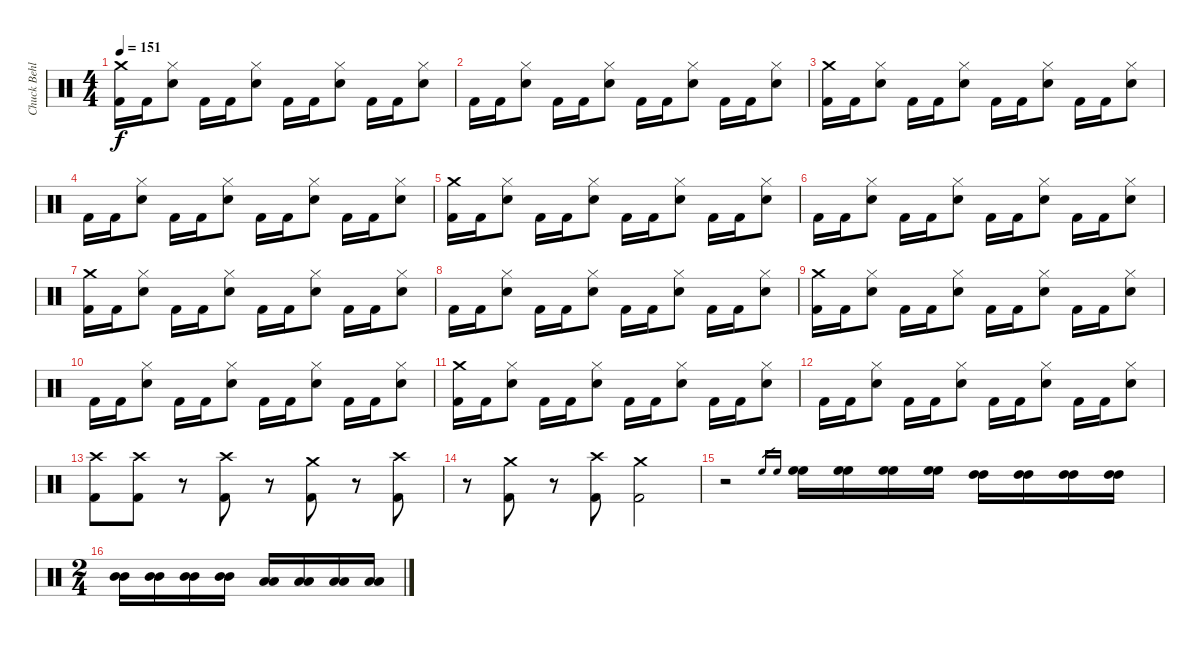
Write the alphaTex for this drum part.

\track ("Chuck Behler" "Chuck Behl") {instrument percussion}
\staff {score}
\articulation defaults
\ts (4 4)
\tempo 151
\clef neutral
\ks c
("Crash medium (hit)" "Kick (hit) 2").16{dy f} "Kick (hit) 2".16 ("Hi-Hat (closed)" "Electric Snare (hit)").8 "Kick (hit) 2".16 "Kick (hit) 2".16 ("Hi-Hat (closed)" "Electric Snare (hit)").8 "Kick (hit) 2".16 "Kick (hit) 2".16 ("Hi-Hat (closed)" "Electric Snare (hit)").8 "Kick (hit) 2".16 "Kick (hit) 2".16 ("Hi-Hat (closed)" "Electric Snare (hit)").8 |
"Kick (hit) 2".16 "Kick (hit) 2".16 ("Hi-Hat (closed)" "Electric Snare (hit)").8 "Kick (hit) 2".16 "Kick (hit) 2".16 ("Hi-Hat (closed)" "Electric Snare (hit)").8 "Kick (hit) 2".16 "Kick (hit) 2".16 ("Hi-Hat (closed)" "Electric Snare (hit)").8 "Kick (hit) 2".16 "Kick (hit) 2".16 ("Hi-Hat (closed)" "Electric Snare (hit)").8 |
("Crash medium (hit)" "Kick (hit) 2").16 "Kick (hit) 2".16 ("Hi-Hat (closed)" "Electric Snare (hit)").8 "Kick (hit) 2".16 "Kick (hit) 2".16 ("Hi-Hat (closed)" "Electric Snare (hit)").8 "Kick (hit) 2".16 "Kick (hit) 2".16 ("Hi-Hat (closed)" "Electric Snare (hit)").8 "Kick (hit) 2".16 "Kick (hit) 2".16 ("Hi-Hat (closed)" "Electric Snare (hit)").8 |
"Kick (hit) 2".16 "Kick (hit) 2".16 ("Hi-Hat (closed)" "Electric Snare (hit)").8 "Kick (hit) 2".16 "Kick (hit) 2".16 ("Hi-Hat (closed)" "Electric Snare (hit)").8 "Kick (hit) 2".16 "Kick (hit) 2".16 ("Hi-Hat (closed)" "Electric Snare (hit)").8 "Kick (hit) 2".16 "Kick (hit) 2".16 ("Hi-Hat (closed)" "Electric Snare (hit)").8 |
("Crash medium (hit)" "Kick (hit) 2").16 "Kick (hit) 2".16 ("Hi-Hat (closed)" "Electric Snare (hit)").8 "Kick (hit) 2".16 "Kick (hit) 2".16 ("Hi-Hat (closed)" "Electric Snare (hit)").8 "Kick (hit) 2".16 "Kick (hit) 2".16 ("Hi-Hat (closed)" "Electric Snare (hit)").8 "Kick (hit) 2".16 "Kick (hit) 2".16 ("Hi-Hat (closed)" "Electric Snare (hit)").8 |
"Kick (hit) 2".16 "Kick (hit) 2".16 ("Hi-Hat (closed)" "Electric Snare (hit)").8 "Kick (hit) 2".16 "Kick (hit) 2".16 ("Hi-Hat (closed)" "Electric Snare (hit)").8 "Kick (hit) 2".16 "Kick (hit) 2".16 ("Hi-Hat (closed)" "Electric Snare (hit)").8 "Kick (hit) 2".16 "Kick (hit) 2".16 ("Hi-Hat (closed)" "Electric Snare (hit)").8 |
("Crash medium (hit)" "Kick (hit) 2").16 "Kick (hit) 2".16 ("Hi-Hat (closed)" "Electric Snare (hit)").8 "Kick (hit) 2".16 "Kick (hit) 2".16 ("Hi-Hat (closed)" "Electric Snare (hit)").8 "Kick (hit) 2".16 "Kick (hit) 2".16 ("Hi-Hat (closed)" "Electric Snare (hit)").8 "Kick (hit) 2".16 "Kick (hit) 2".16 ("Hi-Hat (closed)" "Electric Snare (hit)").8 |
"Kick (hit) 2".16 "Kick (hit) 2".16 ("Hi-Hat (closed)" "Electric Snare (hit)").8 "Kick (hit) 2".16 "Kick (hit) 2".16 ("Hi-Hat (closed)" "Electric Snare (hit)").8 "Kick (hit) 2".16 "Kick (hit) 2".16 ("Hi-Hat (closed)" "Electric Snare (hit)").8 "Kick (hit) 2".16 "Kick (hit) 2".16 ("Hi-Hat (closed)" "Electric Snare (hit)").8 |
("Crash medium (hit)" "Kick (hit) 2").16 "Kick (hit) 2".16 ("Hi-Hat (closed)" "Electric Snare (hit)").8 "Kick (hit) 2".16 "Kick (hit) 2".16 ("Hi-Hat (closed)" "Electric Snare (hit)").8 "Kick (hit) 2".16 "Kick (hit) 2".16 ("Hi-Hat (closed)" "Electric Snare (hit)").8 "Kick (hit) 2".16 "Kick (hit) 2".16 ("Hi-Hat (closed)" "Electric Snare (hit)").8 |
"Kick (hit) 2".16 "Kick (hit) 2".16 ("Hi-Hat (closed)" "Electric Snare (hit)").8 "Kick (hit) 2".16 "Kick (hit) 2".16 ("Hi-Hat (closed)" "Electric Snare (hit)").8 "Kick (hit) 2".16 "Kick (hit) 2".16 ("Hi-Hat (closed)" "Electric Snare (hit)").8 "Kick (hit) 2".16 "Kick (hit) 2".16 ("Hi-Hat (closed)" "Electric Snare (hit)").8 |
("Crash medium (hit)" "Kick (hit) 2").16 "Kick (hit) 2".16 ("Hi-Hat (closed)" "Electric Snare (hit)").8 "Kick (hit) 2".16 "Kick (hit) 2".16 ("Hi-Hat (closed)" "Electric Snare (hit)").8 "Kick (hit) 2".16 "Kick (hit) 2".16 ("Hi-Hat (closed)" "Electric Snare (hit)").8 "Kick (hit) 2".16 "Kick (hit) 2".16 ("Hi-Hat (closed)" "Electric Snare (hit)").8 |
"Kick (hit) 2".16 "Kick (hit) 2".16 ("Hi-Hat (closed)" "Electric Snare (hit)").8 "Kick (hit) 2".16 "Kick (hit) 2".16 ("Hi-Hat (closed)" "Electric Snare (hit)").8 "Kick (hit) 2".16 "Kick (hit) 2".16 ("Hi-Hat (closed)" "Electric Snare (hit)").8 "Kick (hit) 2".16 "Kick (hit) 2".16 ("Hi-Hat (closed)" "Electric Snare (hit)").8 |
("Crash high (hit)" "Kick (hit) 2").8 ("Crash high (hit)" "Kick (hit) 2").8 r.8 ("Crash high (hit)" "Kick (hit) 2").8 r.8 ("Crash medium (hit)" "Kick (hit) 2").8 r.8 ("Crash high (hit)" "Kick (hit) 2").8 |
r.8 ("Crash medium (hit)" "Kick (hit) 2").8 r.8 ("Crash high (hit)" "Kick (hit) 2").8 ("Crash medium (hit)" "Kick (hit) 2").2 |
r.2 "High Floor Tom (hit)".16{gr} "High Floor Tom (hit)".16{gr} ("High Floor Tom (hit)" "High Floor Tom (hit)").16 ("High Floor Tom (hit)" "High Floor Tom (hit)").16 ("High Floor Tom (hit)" "High Floor Tom (hit)").16 ("High Floor Tom (hit)" "High Floor Tom (hit)").16 ("High Tom (hit)" "High Tom (hit)").16 ("High Tom (hit)" "High Tom (hit)").16 ("High Tom (hit)" "High Tom (hit)").16 ("High Tom (hit)" "High Tom (hit)").16 |
\ts (2 4)
("Mid Tom (hit)" "Mid Tom (hit)").16 ("Mid Tom (hit)" "Mid Tom (hit)").16 ("Mid Tom (hit)" "Mid Tom (hit)").16 ("Mid Tom (hit)" "Mid Tom (hit)").16 ("Low Tom (hit)" "Low Tom (hit)").16 ("Low Tom (hit)" "Low Tom (hit)").16 ("Low Tom (hit)" "Low Tom (hit)").16 ("Low Tom (hit)" "Low Tom (hit)").16
